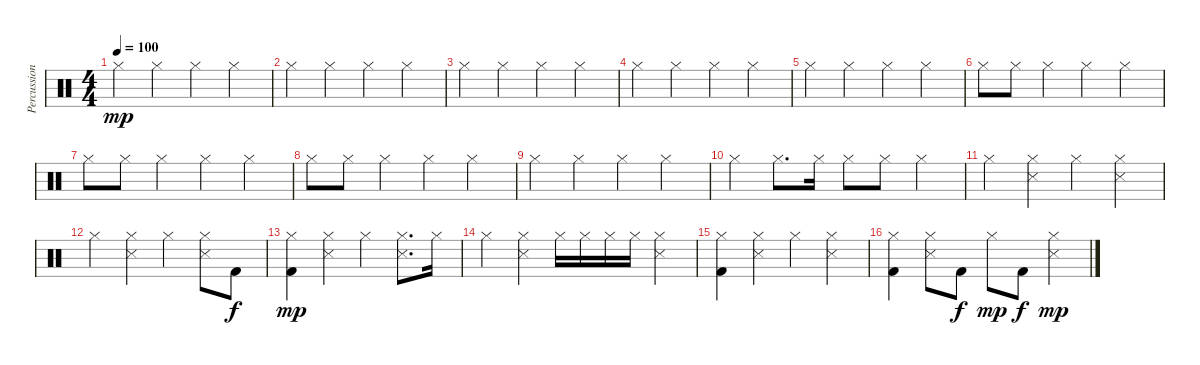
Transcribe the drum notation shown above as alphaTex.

\track ("Percussion" "Percussion") {instrument percussion}
\staff {score}
\articulation defaults
\ts (4 4)
\tempo 100
\clef neutral
\ks c "Hi-Hat (closed)".4{dy mp} "Hi-Hat (closed)".4 "Hi-Hat (closed)".4 "Hi-Hat (closed)".4
|
"Hi-Hat (closed)".4 "Hi-Hat (closed)".4 "Hi-Hat (closed)".4 "Hi-Hat (closed)".4 |
"Hi-Hat (closed)".4 "Hi-Hat (closed)".4 "Hi-Hat (closed)".4 "Hi-Hat (closed)".4 |
"Hi-Hat (closed)".4 "Hi-Hat (closed)".4 "Hi-Hat (closed)".4 "Hi-Hat (closed)".4 |
"Hi-Hat (closed)".4 "Hi-Hat (closed)".4 "Hi-Hat (closed)".4 "Hi-Hat (closed)".4 |
"Hi-Hat (closed)".8 "Hi-Hat (closed)".8 "Hi-Hat (closed)".4 "Hi-Hat (closed)".4 "Hi-Hat (closed)".4 |
"Hi-Hat (closed)".8 "Hi-Hat (closed)".8 "Hi-Hat (closed)".4 "Hi-Hat (closed)".4 "Hi-Hat (closed)".4 |
"Hi-Hat (closed)".8 "Hi-Hat (closed)".8 "Hi-Hat (closed)".4 "Hi-Hat (closed)".4 "Hi-Hat (closed)".4 |
"Hi-Hat (closed)".4 "Hi-Hat (closed)".4 "Hi-Hat (closed)".4 "Hi-Hat (closed)".4 |
"Hi-Hat (closed)".4 "Hi-Hat (closed)".8{d} "Hi-Hat (closed)".16 "Hi-Hat (closed)".8 "Hi-Hat (closed)".8 "Hi-Hat (closed)".4 |
"Hi-Hat (closed)".4 ("Snare (side stick) 3" "Hi-Hat (closed)").4 "Hi-Hat (closed)".4 ("Snare (side stick) 3" "Hi-Hat (closed)").4 |
"Hi-Hat (closed)".4 ("Snare (side stick) 3" "Hi-Hat (closed)").4 "Hi-Hat (closed)".4 ("Snare (side stick) 3" "Hi-Hat (closed)").8 "Kick (hit) 2".8{dy f} |
("Kick (hit) 2" "Hi-Hat (closed)").4{dy mp} ("Snare (side stick) 3" "Hi-Hat (closed)").4 "Hi-Hat (closed)".4 ("Snare (side stick) 3" "Hi-Hat (closed)").8{d} "Hi-Hat (closed)".16 |
"Hi-Hat (closed)".4 ("Snare (side stick) 3" "Hi-Hat (closed)").4 "Hi-Hat (closed)".16 "Hi-Hat (closed)".16 "Hi-Hat (closed)".16 "Hi-Hat (closed)".16 ("Snare (side stick) 3" "Hi-Hat (closed)").4 |
("Kick (hit) 2" "Hi-Hat (closed)").4 ("Snare (side stick) 3" "Hi-Hat (closed)").4 "Hi-Hat (closed)".4 ("Snare (side stick) 3" "Hi-Hat (closed)").4 |
("Kick (hit) 2" "Hi-Hat (closed)").4 ("Hi-Hat (closed)" "Snare (side stick) 3").8 "Kick (hit) 2".8{dy f} "Hi-Hat (closed)".8{dy mp} "Kick (hit) 2".8{dy f} ("Hi-Hat (closed)" "Snare (side stick) 3").4{dy mp}
